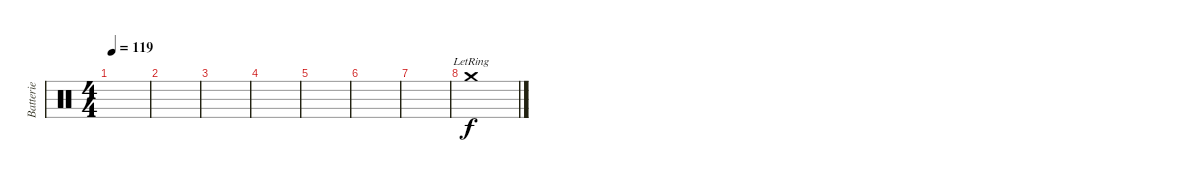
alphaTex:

\track ("Batterie" "Batterie") {instrument percussion}
\staff {score}
\articulation defaults
\ts (4 4)
\tempo 119
\clef neutral
\ks c
|
|
|
|
|
|
|
"Crash medium (hit)"{lr}.1
